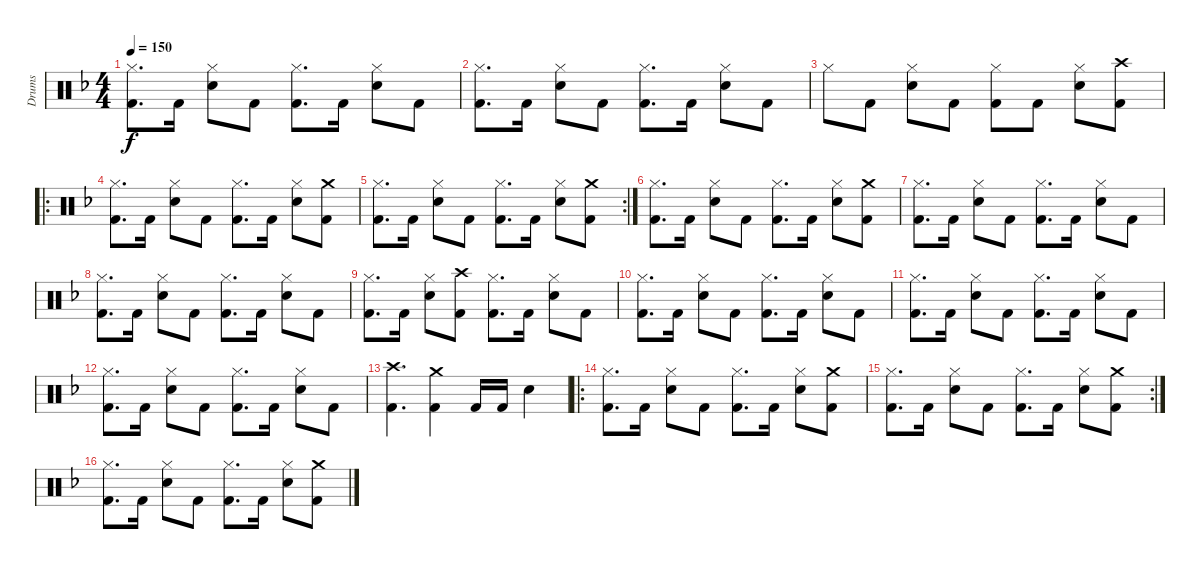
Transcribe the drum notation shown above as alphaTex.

\track ("Drums" "Drums") {instrument percussion}
\staff {score}
\articulation defaults
\ts (4 4)
\tempo 150
\clef neutral
\ks f
("Kick (hit) 2" "Hi-Hat (closed)").8{d dy f} "Kick (hit) 2".16 ("Snare (hit) 2" "Hi-Hat (closed)").8 "Kick (hit) 2".8 ("Kick (hit) 2" "Hi-Hat (closed)").8{d} "Kick (hit) 2".16 ("Snare (hit) 2" "Hi-Hat (closed)").8 "Kick (hit) 2".8 |
("Kick (hit) 2" "Hi-Hat (closed)").8{d} "Kick (hit) 2".16 ("Snare (hit) 2" "Hi-Hat (closed)").8 "Kick (hit) 2".8 ("Kick (hit) 2" "Hi-Hat (closed)").8{d} "Kick (hit) 2".16 ("Snare (hit) 2" "Hi-Hat (closed)").8 "Kick (hit) 2".8 |
"Hi-Hat (closed)".8 "Kick (hit) 2".8 ("Snare (hit) 2" "Hi-Hat (closed)").8 "Kick (hit) 2".8 ("Kick (hit) 2" "Hi-Hat (closed)").8 "Kick (hit) 2".8 ("Hi-Hat (closed)" "Snare (hit) 2").8 ("Kick (hit) 2" "Crash high (hit)").8 |
\ro
("Kick (hit) 2" "Hi-Hat (closed)").8{d} "Kick (hit) 2".16 ("Snare (hit) 2" "Hi-Hat (closed)").8 "Kick (hit) 2".8 ("Kick (hit) 2" "Hi-Hat (closed)").8{d} "Kick (hit) 2".16 ("Snare (hit) 2" "Hi-Hat (closed)").8 ("Kick (hit) 2" "Crash medium (hit)").8 |
\rc 2
("Kick (hit) 2" "Hi-Hat (closed)").8{d} "Kick (hit) 2".16 ("Snare (hit) 2" "Hi-Hat (closed)").8 "Kick (hit) 2".8 ("Kick (hit) 2" "Hi-Hat (closed)").8{d} "Kick (hit) 2".16 ("Snare (hit) 2" "Hi-Hat (closed)").8 ("Kick (hit) 2" "Crash medium (hit)").8 |
("Kick (hit) 2" "Hi-Hat (closed)").8{d} "Kick (hit) 2".16 ("Snare (hit) 2" "Hi-Hat (closed)").8 "Kick (hit) 2".8 ("Kick (hit) 2" "Hi-Hat (closed)").8{d} "Kick (hit) 2".16 ("Snare (hit) 2" "Hi-Hat (closed)").8 ("Kick (hit) 2" "Crash medium (hit)").8 |
("Kick (hit) 2" "Hi-Hat (closed)").8{d} "Kick (hit) 2".16 ("Snare (hit) 2" "Hi-Hat (closed)").8 "Kick (hit) 2".8 ("Kick (hit) 2" "Hi-Hat (closed)").8{d} "Kick (hit) 2".16 ("Snare (hit) 2" "Hi-Hat (closed)").8 "Kick (hit) 2".8 |
("Kick (hit) 2" "Hi-Hat (closed)").8{d} "Kick (hit) 2".16 ("Snare (hit) 2" "Hi-Hat (closed)").8 "Kick (hit) 2".8 ("Kick (hit) 2" "Hi-Hat (closed)").8{d} "Kick (hit) 2".16 ("Snare (hit) 2" "Hi-Hat (closed)").8 "Kick (hit) 2".8 |
("Kick (hit) 2" "Hi-Hat (closed)").8{d} "Kick (hit) 2".16 ("Snare (hit) 2" "Hi-Hat (closed)").8 ("Kick (hit) 2" "Crash high (hit)").8 ("Kick (hit) 2" "Hi-Hat (closed)").8{d} "Kick (hit) 2".16 ("Snare (hit) 2" "Hi-Hat (closed)").8 "Kick (hit) 2".8 |
("Kick (hit) 2" "Hi-Hat (closed)").8{d} "Kick (hit) 2".16 ("Snare (hit) 2" "Hi-Hat (closed)").8 "Kick (hit) 2".8 ("Kick (hit) 2" "Hi-Hat (closed)").8{d} "Kick (hit) 2".16 ("Snare (hit) 2" "Hi-Hat (closed)").8 "Kick (hit) 2".8 |
("Kick (hit) 2" "Hi-Hat (closed)").8{d} "Kick (hit) 2".16 ("Snare (hit) 2" "Hi-Hat (closed)").8 "Kick (hit) 2".8 ("Kick (hit) 2" "Hi-Hat (closed)").8{d} "Kick (hit) 2".16 ("Snare (hit) 2" "Hi-Hat (closed)").8 "Kick (hit) 2".8 |
("Kick (hit) 2" "Hi-Hat (closed)").8{d} "Kick (hit) 2".16 ("Snare (hit) 2" "Hi-Hat (closed)").8 "Kick (hit) 2".8 ("Kick (hit) 2" "Hi-Hat (closed)").8{d} "Kick (hit) 2".16 ("Snare (hit) 2" "Hi-Hat (closed)").8 "Kick (hit) 2".8 |
("Kick (hit) 2" "Crash high (hit)").4{d} ("Kick (hit) 2" "Crash medium (hit)").4 "Kick (hit) 2".16 "Kick (hit) 2".16 "Snare (hit) 2".4 |
\ro
("Kick (hit) 2" "Hi-Hat (closed)").8{d} "Kick (hit) 2".16 ("Snare (hit) 2" "Hi-Hat (closed)").8 "Kick (hit) 2".8 ("Kick (hit) 2" "Hi-Hat (closed)").8{d} "Kick (hit) 2".16 ("Snare (hit) 2" "Hi-Hat (closed)").8 ("Kick (hit) 2" "Crash medium (hit)").8 |
\rc 2
("Kick (hit) 2" "Hi-Hat (closed)").8{d} "Kick (hit) 2".16 ("Snare (hit) 2" "Hi-Hat (closed)").8 "Kick (hit) 2".8 ("Kick (hit) 2" "Hi-Hat (closed)").8{d} "Kick (hit) 2".16 ("Snare (hit) 2" "Hi-Hat (closed)").8 ("Kick (hit) 2" "Crash medium (hit)").8 |
("Kick (hit) 2" "Hi-Hat (closed)").8{d} "Kick (hit) 2".16 ("Snare (hit) 2" "Hi-Hat (closed)").8 "Kick (hit) 2".8 ("Kick (hit) 2" "Hi-Hat (closed)").8{d} "Kick (hit) 2".16 ("Snare (hit) 2" "Hi-Hat (closed)").8 ("Kick (hit) 2" "Crash medium (hit)").8
